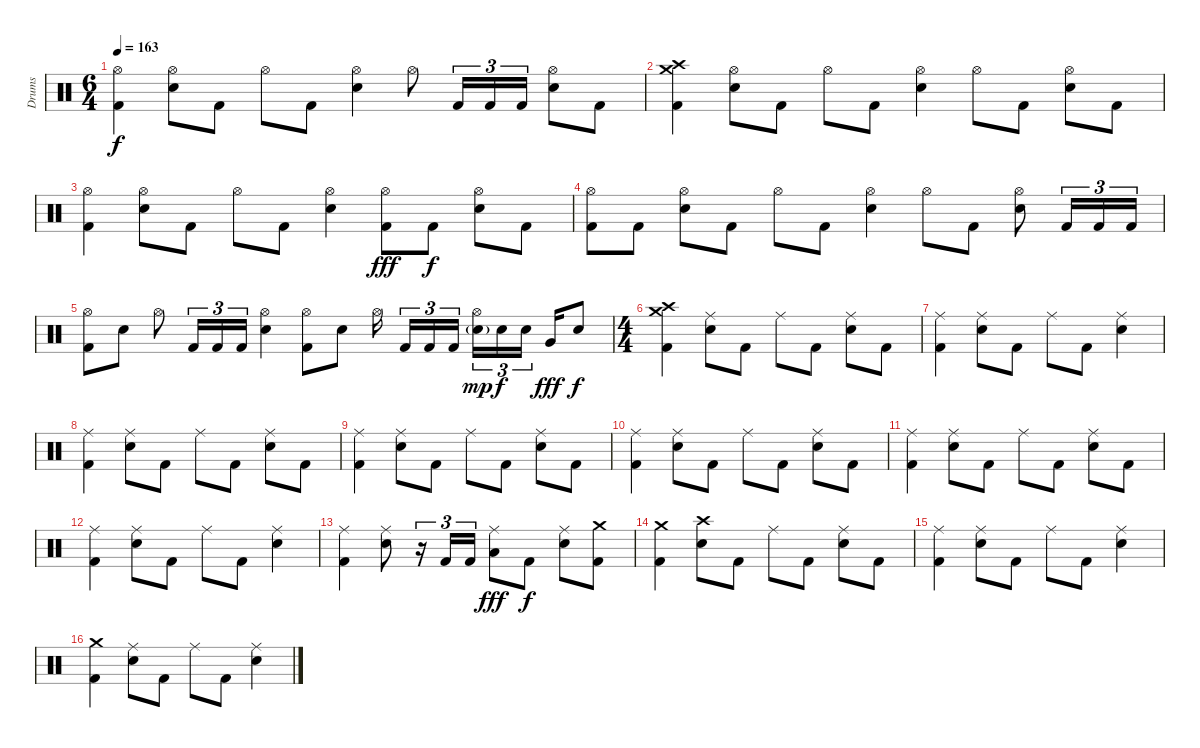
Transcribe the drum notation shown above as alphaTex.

\track ("Drums" "Drums") {instrument percussion}
\staff {score}
\articulation defaults
\ts (6 4)
\tempo 163
\clef neutral
\ks c
("Hi-Hat (open)" "Kick (hit) 2").4{dy f} ("Hi-Hat (open)" "Electric Snare (hit)").8 "Kick (hit) 2".8 "Hi-Hat (open)".8 "Kick (hit) 2".8 ("Hi-Hat (open)" "Electric Snare (hit)").4 "Hi-Hat (open)".8 "Kick (hit) 2".16{tu (3 2)} "Kick (hit) 2".16{tu (3 2)} "Kick (hit) 2".16{tu (3 2)} ("Hi-Hat (open)" "Electric Snare (hit)").8 "Kick (hit) 2".8 |
("Crash medium (hit)" "Crash high (hit)" "Kick (hit) 2").4 ("Hi-Hat (open)" "Electric Snare (hit)").8 "Kick (hit) 2".8 "Hi-Hat (open)".8 "Kick (hit) 2".8 ("Hi-Hat (open)" "Electric Snare (hit)").4 "Hi-Hat (open)".8 "Kick (hit) 2".8 ("Hi-Hat (open)" "Electric Snare (hit)").8 "Kick (hit) 2".8 |
("Hi-Hat (open)" "Kick (hit) 2").4 ("Hi-Hat (open)" "Electric Snare (hit)").8 "Kick (hit) 2".8 "Hi-Hat (open)".8 "Kick (hit) 2".8 ("Hi-Hat (open)" "Electric Snare (hit)").4 ("Hi-Hat (open)" "Kick (hit) 2").8{dy fff} "Kick (hit) 2".8{dy f} ("Hi-Hat (open)" "Electric Snare (hit)").8 "Kick (hit) 2".8 |
("Hi-Hat (open)" "Kick (hit) 2").8 "Kick (hit) 2".8 ("Hi-Hat (open)" "Electric Snare (hit)").8 "Kick (hit) 2".8 "Hi-Hat (open)".8 "Kick (hit) 2".8 ("Hi-Hat (open)" "Electric Snare (hit)").4 "Hi-Hat (open)".8 "Kick (hit) 2".8 ("Hi-Hat (open)" "Electric Snare (hit)").8 "Kick (hit) 2".16{tu (3 2)} "Kick (hit) 2".16{tu (3 2)} "Kick (hit) 2".16{tu (3 2)} |
("Hi-Hat (open)" "Kick (hit) 2").8 "Electric Snare (hit)".8 "Hi-Hat (open)".8 "Kick (hit) 2".16{tu (3 2)} "Kick (hit) 2".16{tu (3 2)} "Kick (hit) 2".16{tu (3 2)} ("Hi-Hat (open)" "Electric Snare (hit)").4 ("Hi-Hat (open)" "Kick (hit) 2").8 "Electric Snare (hit)".8 "Hi-Hat (open)".16 "Kick (hit) 2".16{tu (3 2)} "Kick (hit) 2".16{tu (3 2)} "Kick (hit) 2".16{tu (3 2)} ("Hi-Hat (open)" "Electric Snare (hit)"{g}).16{tu (3 2) dy mp} "Electric Snare (hit)".16{tu (3 2) dy f} "Electric Snare (hit)".16{tu (3 2)} "Very Low Tom (hit)".16{dy fff} "Electric Snare (hit)".8{dy f} |
\ts (4 4)
("Crash high (hit)" "Crash medium (hit)" "Kick (hit) 2").4 ("Ride (middle)" "Electric Snare (hit)").8 "Kick (hit) 2".8 "Ride (middle)".8 "Kick (hit) 2".8 ("Ride (middle)" "Electric Snare (hit)").8 "Kick (hit) 2".8 |
("Ride (middle)" "Kick (hit) 2").4 ("Ride (middle)" "Electric Snare (hit)").8 "Kick (hit) 2".8 "Ride (middle)".8 "Kick (hit) 2".8 ("Ride (middle)" "Electric Snare (hit)").4 |
("Ride (middle)" "Kick (hit) 2").4 ("Ride (middle)" "Electric Snare (hit)").8 "Kick (hit) 2".8 "Ride (middle)".8 "Kick (hit) 2".8 ("Ride (middle)" "Electric Snare (hit)").8 "Kick (hit) 2".8 |
("Ride (middle)" "Kick (hit) 2").4 ("Ride (middle)" "Electric Snare (hit)").8 "Kick (hit) 2".8 "Ride (middle)".8 "Kick (hit) 2".8 ("Ride (middle)" "Electric Snare (hit)").8 "Kick (hit) 2".8 |
("Ride (middle)" "Kick (hit) 2").4 ("Ride (middle)" "Electric Snare (hit)").8 "Kick (hit) 2".8 "Ride (middle)".8 "Kick (hit) 2".8 ("Ride (middle)" "Electric Snare (hit)").8 "Kick (hit) 2".8 |
("Ride (middle)" "Kick (hit) 2").4 ("Ride (middle)" "Electric Snare (hit)").8 "Kick (hit) 2".8 "Ride (middle)".8 "Kick (hit) 2".8 ("Ride (middle)" "Electric Snare (hit)").8 "Kick (hit) 2".8 |
("Ride (middle)" "Kick (hit) 2").4 ("Ride (middle)" "Electric Snare (hit)").8 "Kick (hit) 2".8 "Ride (middle)".8 "Kick (hit) 2".8 ("Ride (middle)" "Electric Snare (hit)").4 |
("Ride (middle)" "Kick (hit) 2").4 ("Ride (middle)" "Electric Snare (hit)").8 r.16{tu (3 2)} "Kick (hit) 2".16{tu (3 2)} "Kick (hit) 2".16{tu (3 2)} ("Ride (middle)" "Low Tom (hit)").8{dy fff} "Kick (hit) 2".8{dy f} ("Ride (middle)" "Electric Snare (hit)").8 ("Crash medium (hit)" "Kick (hit) 2").8 |
("Crash medium (hit)" "Kick (hit) 2").4 ("Crash high (hit)" "Electric Snare (hit)").8 "Kick (hit) 2".8 "Ride (middle)".8 "Kick (hit) 2".8 ("Ride (middle)" "Electric Snare (hit)").8 "Kick (hit) 2".8 |
("Ride (middle)" "Kick (hit) 2").4 ("Ride (middle)" "Electric Snare (hit)").8 "Kick (hit) 2".8 "Ride (middle)".8 "Kick (hit) 2".8 ("Ride (middle)" "Electric Snare (hit)").4 |
("Crash medium (hit)" "Kick (hit) 2").4 ("Ride (middle)" "Electric Snare (hit)").8 "Kick (hit) 2".8 "Ride (middle)".8 "Kick (hit) 2".8 ("Ride (middle)" "Electric Snare (hit)").4
